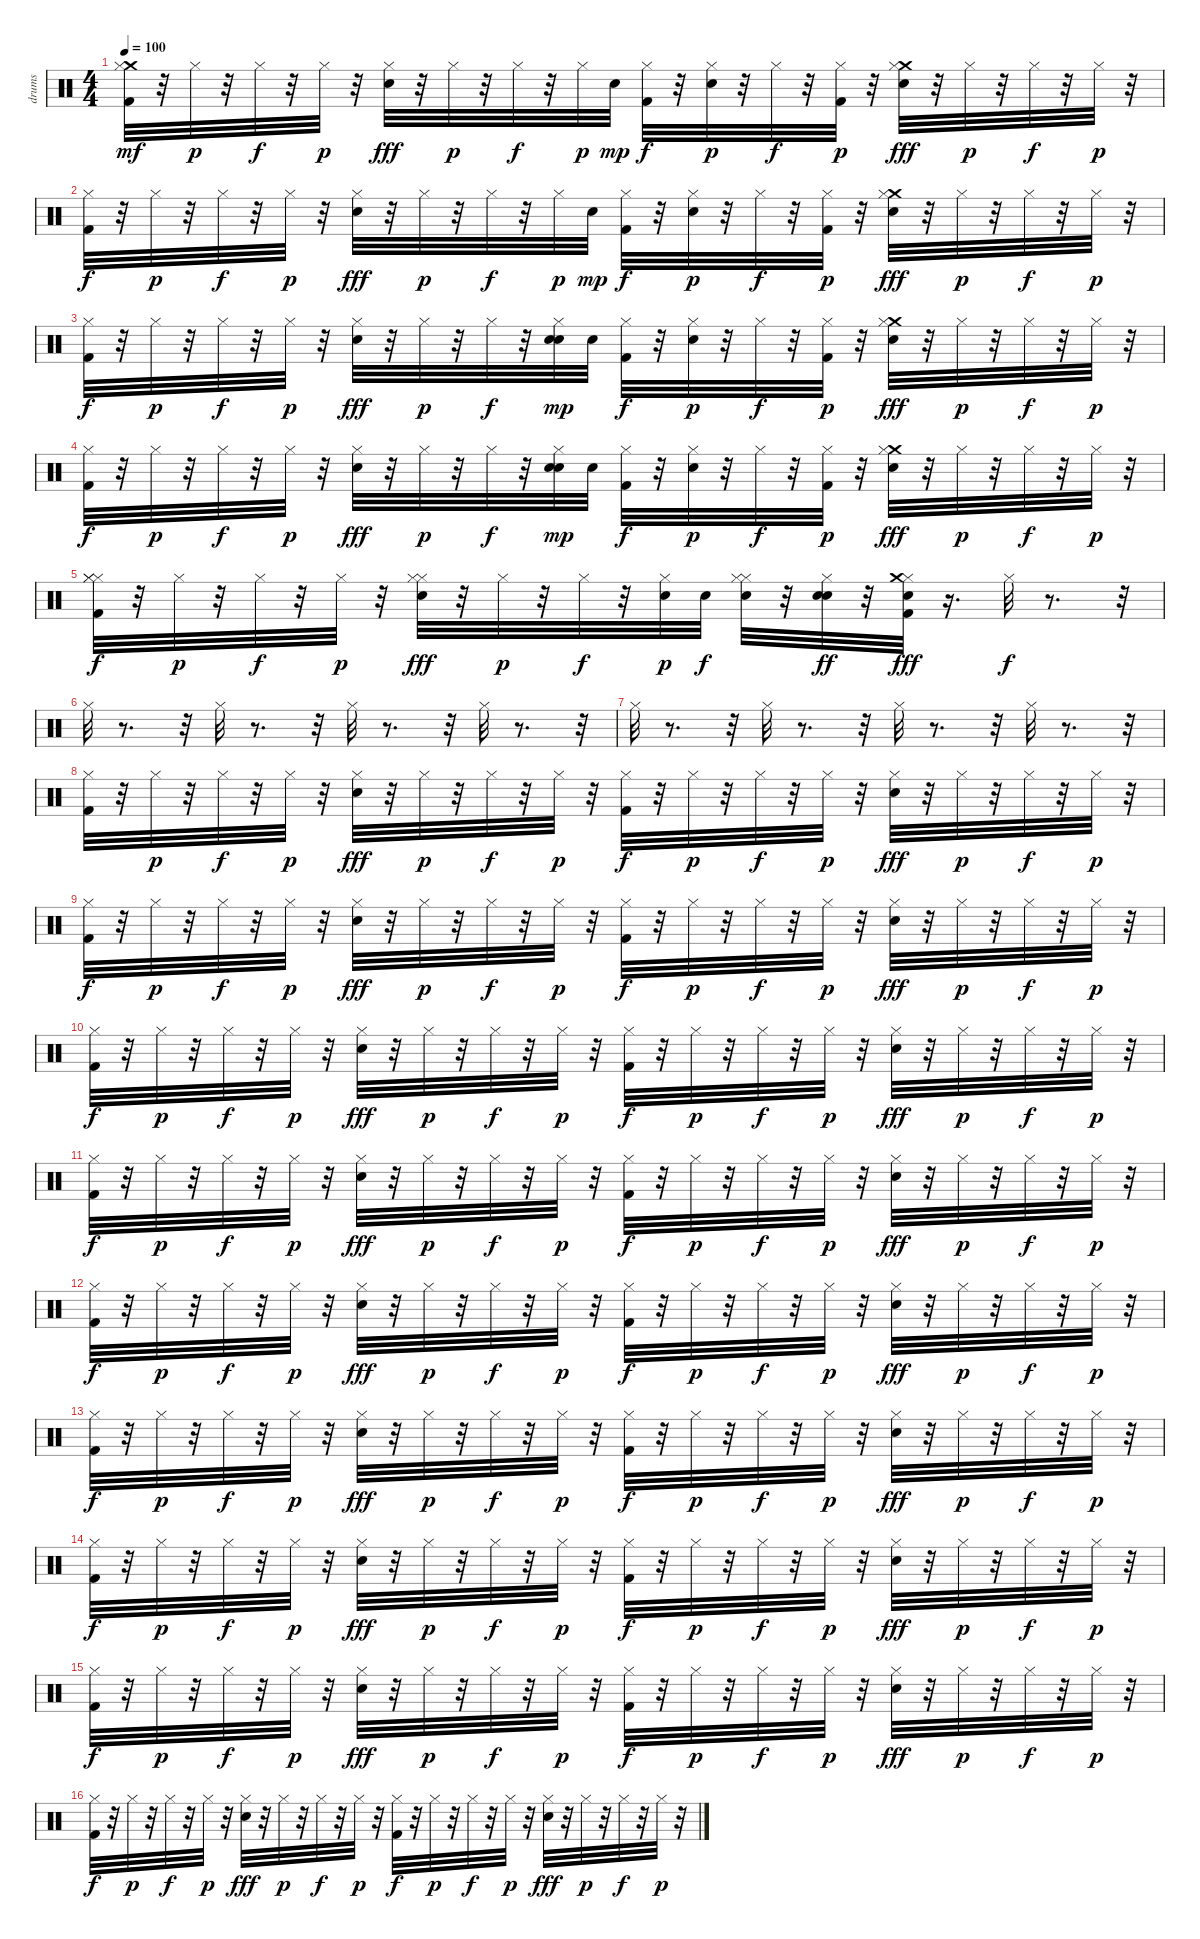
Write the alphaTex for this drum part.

\track ("drums" "drums") {instrument percussion}
\staff {score}
\articulation defaults
\ts (4 4)
\tempo 100
\clef neutral
\ks c
("Crash medium (hit)" "Hi-Hat (closed)" "Kick (hit) 2").32{dy mf} r.32 "Hi-Hat (closed)".32{dy p} r.32 "Hi-Hat (closed)".32{dy f} r.32 "Hi-Hat (closed)".32{dy p} r.32 ("Hi-Hat (closed)" "Electric Snare (hit)").32{dy fff} r.32 "Hi-Hat (closed)".32{dy p} r.32 "Hi-Hat (closed)".32{dy f} r.32 "Hi-Hat (closed)".32{dy p} "Electric Snare (hit)".32{dy mp} ("Hi-Hat (closed)" "Kick (hit) 2").32{dy f} r.32 ("Hi-Hat (closed)" "Electric Snare (hit)").32{dy p} r.32 "Hi-Hat (closed)".32{dy f} r.32 ("Hi-Hat (closed)" "Kick (hit) 2").32{dy p} r.32 ("Crash medium (hit)" "Hi-Hat (closed)" "Electric Snare (hit)").32{dy fff} r.32 "Hi-Hat (closed)".32{dy p} r.32 "Hi-Hat (closed)".32{dy f} r.32 "Hi-Hat (closed)".32{dy p} r.32 |
("Hi-Hat (closed)" "Kick (hit) 2").32{dy f} r.32 "Hi-Hat (closed)".32{dy p} r.32 "Hi-Hat (closed)".32{dy f} r.32 "Hi-Hat (closed)".32{dy p} r.32 ("Hi-Hat (closed)" "Electric Snare (hit)").32{dy fff} r.32 "Hi-Hat (closed)".32{dy p} r.32 "Hi-Hat (closed)".32{dy f} r.32 "Hi-Hat (closed)".32{dy p} "Electric Snare (hit)".32{dy mp} ("Hi-Hat (closed)" "Kick (hit) 2").32{dy f} r.32 ("Hi-Hat (closed)" "Electric Snare (hit)").32{dy p} r.32 "Hi-Hat (closed)".32{dy f} r.32 ("Hi-Hat (closed)" "Kick (hit) 2").32{dy p} r.32 ("Crash medium (hit)" "Hi-Hat (closed)" "Electric Snare (hit)").32{dy fff} r.32 "Hi-Hat (closed)".32{dy p} r.32 "Hi-Hat (closed)".32{dy f} r.32 "Hi-Hat (closed)".32{dy p} r.32 |
("Hi-Hat (closed)" "Kick (hit) 2").32{dy f} r.32 "Hi-Hat (closed)".32{dy p} r.32 "Hi-Hat (closed)".32{dy f} r.32 "Hi-Hat (closed)".32{dy p} r.32 ("Hi-Hat (closed)" "Electric Snare (hit)").32{dy fff} r.32 "Hi-Hat (closed)".32{dy p} r.32 "Hi-Hat (closed)".32{dy f} r.32 ("Hi-Hat (closed)" "Electric Snare (hit)" "Electric Snare (hit)").32{dy mp} "Electric Snare (hit)".32 ("Hi-Hat (closed)" "Kick (hit) 2").32{dy f} r.32 ("Hi-Hat (closed)" "Electric Snare (hit)").32{dy p} r.32 "Hi-Hat (closed)".32{dy f} r.32 ("Hi-Hat (closed)" "Kick (hit) 2").32{dy p} r.32 ("Crash medium (hit)" "Hi-Hat (closed)" "Electric Snare (hit)").32{dy fff} r.32 "Hi-Hat (closed)".32{dy p} r.32 "Hi-Hat (closed)".32{dy f} r.32 "Hi-Hat (closed)".32{dy p} r.32 |
("Hi-Hat (closed)" "Kick (hit) 2").32{dy f} r.32 "Hi-Hat (closed)".32{dy p} r.32 "Hi-Hat (closed)".32{dy f} r.32 "Hi-Hat (closed)".32{dy p} r.32 ("Hi-Hat (closed)" "Electric Snare (hit)").32{dy fff} r.32 "Hi-Hat (closed)".32{dy p} r.32 "Hi-Hat (closed)".32{dy f} r.32 ("Hi-Hat (closed)" "Electric Snare (hit)" "Electric Snare (hit)").32{dy mp} "Electric Snare (hit)".32 ("Hi-Hat (closed)" "Kick (hit) 2").32{dy f} r.32 ("Hi-Hat (closed)" "Electric Snare (hit)").32{dy p} r.32 "Hi-Hat (closed)".32{dy f} r.32 ("Hi-Hat (closed)" "Kick (hit) 2").32{dy p} r.32 ("Crash medium (hit)" "Hi-Hat (closed)" "Electric Snare (hit)").32{dy fff} r.32 "Hi-Hat (closed)".32{dy p} r.32 "Hi-Hat (closed)".32{dy f} r.32 "Hi-Hat (closed)".32{dy p} r.32 |
("Hi-Hat (closed)" "Hi-Hat (closed)" "Kick (hit) 2" "Hi-Hat (closed)").32{dy f} r.32 "Hi-Hat (closed)".32{dy p} r.32 "Hi-Hat (closed)".32{dy f} r.32 "Hi-Hat (closed)".32{dy p} r.32 ("Hi-Hat (closed)" "Electric Snare (hit)" "Hi-Hat (closed)").32{dy fff} r.32 "Hi-Hat (closed)".32{dy p} r.32 "Hi-Hat (closed)".32{dy f} r.32 ("Hi-Hat (closed)" "Snare (hit) 2").32{dy p} "Snare (hit) 2".32{dy f} ("Hi-Hat (closed)" "Hi-Hat (closed)" "Electric Snare (hit)").32 r.32 ("Hi-Hat (closed)" "Electric Snare (hit)" "Electric Snare (hit)").32{dy ff} r.32 ("Hi-Hat (closed)" "Snare (hit) 2" "Crash medium (hit)" "Kick (hit) 2").32{dy fff} r.16{d} "Hi-Hat (closed)".32{dy f} r.8{d} r.32 |
"Hi-Hat (closed)".32 r.8{d} r.32 "Hi-Hat (closed)".32 r.8{d} r.32 "Hi-Hat (closed)".32 r.8{d} r.32 "Hi-Hat (closed)".32 r.8{d} r.32 |
"Hi-Hat (closed)".32 r.8{d} r.32 "Hi-Hat (closed)".32 r.8{d} r.32 "Hi-Hat (closed)".32 r.8{d} r.32 "Hi-Hat (closed)".32 r.8{d} r.32 |
("Hi-Hat (closed)" "Kick (hit) 2").32 r.32 "Hi-Hat (closed)".32{dy p} r.32 "Hi-Hat (closed)".32{dy f} r.32 "Hi-Hat (closed)".32{dy p} r.32 ("Hi-Hat (closed)" "Electric Snare (hit)").32{dy fff} r.32 "Hi-Hat (closed)".32{dy p} r.32 "Hi-Hat (closed)".32{dy f} r.32 "Hi-Hat (closed)".32{dy p} r.32 ("Hi-Hat (closed)" "Kick (hit) 2").32{dy f} r.32 "Hi-Hat (closed)".32{dy p} r.32 "Hi-Hat (closed)".32{dy f} r.32 "Hi-Hat (closed)".32{dy p} r.32 ("Hi-Hat (closed)" "Electric Snare (hit)").32{dy fff} r.32 "Hi-Hat (closed)".32{dy p} r.32 "Hi-Hat (closed)".32{dy f} r.32 "Hi-Hat (closed)".32{dy p} r.32 |
("Hi-Hat (closed)" "Kick (hit) 2").32{dy f} r.32 "Hi-Hat (closed)".32{dy p} r.32 "Hi-Hat (closed)".32{dy f} r.32 "Hi-Hat (closed)".32{dy p} r.32 ("Hi-Hat (closed)" "Electric Snare (hit)").32{dy fff} r.32 "Hi-Hat (closed)".32{dy p} r.32 "Hi-Hat (closed)".32{dy f} r.32 "Hi-Hat (closed)".32{dy p} r.32 ("Hi-Hat (closed)" "Kick (hit) 2").32{dy f} r.32 "Hi-Hat (closed)".32{dy p} r.32 "Hi-Hat (closed)".32{dy f} r.32 "Hi-Hat (closed)".32{dy p} r.32 ("Hi-Hat (closed)" "Electric Snare (hit)").32{dy fff} r.32 "Hi-Hat (closed)".32{dy p} r.32 "Hi-Hat (closed)".32{dy f} r.32 "Hi-Hat (closed)".32{dy p} r.32 |
("Hi-Hat (closed)" "Kick (hit) 2").32{dy f} r.32 "Hi-Hat (closed)".32{dy p} r.32 "Hi-Hat (closed)".32{dy f} r.32 "Hi-Hat (closed)".32{dy p} r.32 ("Hi-Hat (closed)" "Electric Snare (hit)").32{dy fff} r.32 "Hi-Hat (closed)".32{dy p} r.32 "Hi-Hat (closed)".32{dy f} r.32 "Hi-Hat (closed)".32{dy p} r.32 ("Hi-Hat (closed)" "Kick (hit) 2").32{dy f} r.32 "Hi-Hat (closed)".32{dy p} r.32 "Hi-Hat (closed)".32{dy f} r.32 "Hi-Hat (closed)".32{dy p} r.32 ("Hi-Hat (closed)" "Electric Snare (hit)").32{dy fff} r.32 "Hi-Hat (closed)".32{dy p} r.32 "Hi-Hat (closed)".32{dy f} r.32 "Hi-Hat (closed)".32{dy p} r.32 |
("Hi-Hat (closed)" "Kick (hit) 2").32{dy f} r.32 "Hi-Hat (closed)".32{dy p} r.32 "Hi-Hat (closed)".32{dy f} r.32 "Hi-Hat (closed)".32{dy p} r.32 ("Hi-Hat (closed)" "Electric Snare (hit)").32{dy fff} r.32 "Hi-Hat (closed)".32{dy p} r.32 "Hi-Hat (closed)".32{dy f} r.32 "Hi-Hat (closed)".32{dy p} r.32 ("Hi-Hat (closed)" "Kick (hit) 2").32{dy f} r.32 "Hi-Hat (closed)".32{dy p} r.32 "Hi-Hat (closed)".32{dy f} r.32 "Hi-Hat (closed)".32{dy p} r.32 ("Hi-Hat (closed)" "Electric Snare (hit)").32{dy fff} r.32 "Hi-Hat (closed)".32{dy p} r.32 "Hi-Hat (closed)".32{dy f} r.32 "Hi-Hat (closed)".32{dy p} r.32 |
("Hi-Hat (closed)" "Kick (hit) 2").32{dy f} r.32 "Hi-Hat (closed)".32{dy p} r.32 "Hi-Hat (closed)".32{dy f} r.32 "Hi-Hat (closed)".32{dy p} r.32 ("Hi-Hat (closed)" "Electric Snare (hit)").32{dy fff} r.32 "Hi-Hat (closed)".32{dy p} r.32 "Hi-Hat (closed)".32{dy f} r.32 "Hi-Hat (closed)".32{dy p} r.32 ("Hi-Hat (closed)" "Kick (hit) 2").32{dy f} r.32 "Hi-Hat (closed)".32{dy p} r.32 "Hi-Hat (closed)".32{dy f} r.32 "Hi-Hat (closed)".32{dy p} r.32 ("Hi-Hat (closed)" "Electric Snare (hit)").32{dy fff} r.32 "Hi-Hat (closed)".32{dy p} r.32 "Hi-Hat (closed)".32{dy f} r.32 "Hi-Hat (closed)".32{dy p} r.32 |
("Hi-Hat (closed)" "Kick (hit) 2").32{dy f} r.32 "Hi-Hat (closed)".32{dy p} r.32 "Hi-Hat (closed)".32{dy f} r.32 "Hi-Hat (closed)".32{dy p} r.32 ("Hi-Hat (closed)" "Electric Snare (hit)").32{dy fff} r.32 "Hi-Hat (closed)".32{dy p} r.32 "Hi-Hat (closed)".32{dy f} r.32 "Hi-Hat (closed)".32{dy p} r.32 ("Hi-Hat (closed)" "Kick (hit) 2").32{dy f} r.32 "Hi-Hat (closed)".32{dy p} r.32 "Hi-Hat (closed)".32{dy f} r.32 "Hi-Hat (closed)".32{dy p} r.32 ("Hi-Hat (closed)" "Electric Snare (hit)").32{dy fff} r.32 "Hi-Hat (closed)".32{dy p} r.32 "Hi-Hat (closed)".32{dy f} r.32 "Hi-Hat (closed)".32{dy p} r.32 |
("Hi-Hat (closed)" "Kick (hit) 2").32{dy f} r.32 "Hi-Hat (closed)".32{dy p} r.32 "Hi-Hat (closed)".32{dy f} r.32 "Hi-Hat (closed)".32{dy p} r.32 ("Hi-Hat (closed)" "Electric Snare (hit)").32{dy fff} r.32 "Hi-Hat (closed)".32{dy p} r.32 "Hi-Hat (closed)".32{dy f} r.32 "Hi-Hat (closed)".32{dy p} r.32 ("Hi-Hat (closed)" "Kick (hit) 2").32{dy f} r.32 "Hi-Hat (closed)".32{dy p} r.32 "Hi-Hat (closed)".32{dy f} r.32 "Hi-Hat (closed)".32{dy p} r.32 ("Hi-Hat (closed)" "Electric Snare (hit)").32{dy fff} r.32 "Hi-Hat (closed)".32{dy p} r.32 "Hi-Hat (closed)".32{dy f} r.32 "Hi-Hat (closed)".32{dy p} r.32 |
("Hi-Hat (closed)" "Kick (hit) 2").32{dy f} r.32 "Hi-Hat (closed)".32{dy p} r.32 "Hi-Hat (closed)".32{dy f} r.32 "Hi-Hat (closed)".32{dy p} r.32 ("Hi-Hat (closed)" "Electric Snare (hit)").32{dy fff} r.32 "Hi-Hat (closed)".32{dy p} r.32 "Hi-Hat (closed)".32{dy f} r.32 "Hi-Hat (closed)".32{dy p} r.32 ("Hi-Hat (closed)" "Kick (hit) 2").32{dy f} r.32 "Hi-Hat (closed)".32{dy p} r.32 "Hi-Hat (closed)".32{dy f} r.32 "Hi-Hat (closed)".32{dy p} r.32 ("Hi-Hat (closed)" "Electric Snare (hit)").32{dy fff} r.32 "Hi-Hat (closed)".32{dy p} r.32 "Hi-Hat (closed)".32{dy f} r.32 "Hi-Hat (closed)".32{dy p} r.32 |
("Hi-Hat (closed)" "Kick (hit) 2").32{dy f} r.32 "Hi-Hat (closed)".32{dy p} r.32 "Hi-Hat (closed)".32{dy f} r.32 "Hi-Hat (closed)".32{dy p} r.32 ("Hi-Hat (closed)" "Electric Snare (hit)").32{dy fff} r.32 "Hi-Hat (closed)".32{dy p} r.32 "Hi-Hat (closed)".32{dy f} r.32 "Hi-Hat (closed)".32{dy p} r.32 ("Hi-Hat (closed)" "Kick (hit) 2").32{dy f} r.32 "Hi-Hat (closed)".32{dy p} r.32 "Hi-Hat (closed)".32{dy f} r.32 "Hi-Hat (closed)".32{dy p} r.32 ("Hi-Hat (closed)" "Electric Snare (hit)").32{dy fff} r.32 "Hi-Hat (closed)".32{dy p} r.32 "Hi-Hat (closed)".32{dy f} r.32 "Hi-Hat (closed)".32{dy p} r.32
